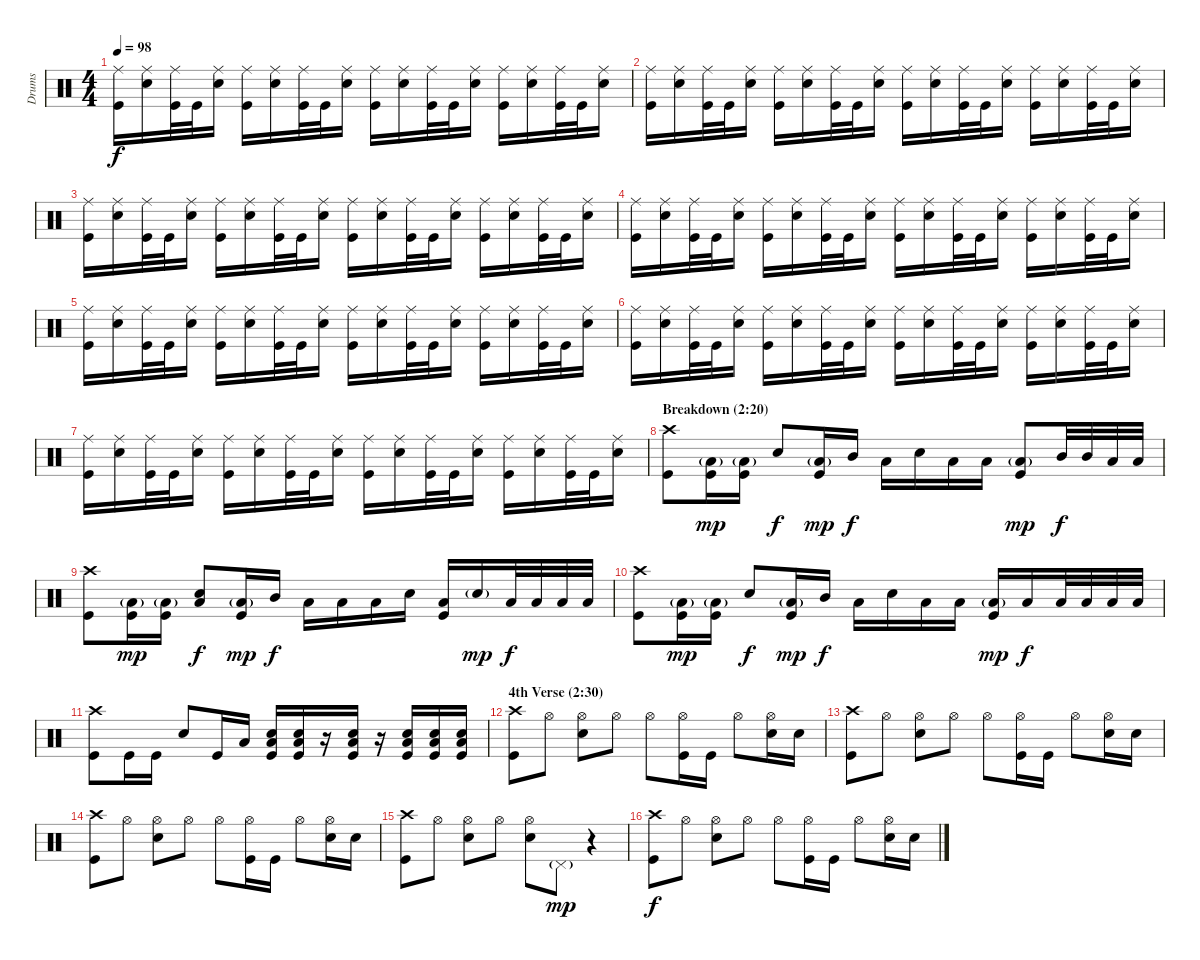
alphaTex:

\track ("Drums" "Drums") {instrument percussion}
\staff {score}
\articulation defaults
\ts (4 4)
\tempo 98
\clef neutral
\ks c
("Ride (middle)" "Kick (hit)").16{dy f} ("Ride (middle)" "Snare (hit) 2").16 ("Ride (middle)" "Kick (hit)").32 "Kick (hit)".32 ("Ride (middle)" "Snare (hit) 2").16 ("Ride (middle)" "Kick (hit)").16 ("Ride (middle)" "Snare (hit) 2").16 ("Ride (middle)" "Kick (hit)").32 "Kick (hit)".32 ("Ride (middle)" "Snare (hit) 2").16 ("Ride (middle)" "Kick (hit)").16 ("Ride (middle)" "Snare (hit) 2").16 ("Ride (middle)" "Kick (hit)").32 "Kick (hit)".32 ("Ride (middle)" "Snare (hit) 2").16 ("Ride (middle)" "Kick (hit)").16 ("Ride (middle)" "Snare (hit) 2").16 ("Ride (middle)" "Kick (hit)").32 "Kick (hit)".32 ("Ride (middle)" "Snare (hit) 2").16 |
("Ride (middle)" "Kick (hit)").16 ("Ride (middle)" "Snare (hit) 2").16 ("Ride (middle)" "Kick (hit)").32 "Kick (hit)".32 ("Ride (middle)" "Snare (hit) 2").16 ("Ride (middle)" "Kick (hit)").16 ("Ride (middle)" "Snare (hit) 2").16 ("Ride (middle)" "Kick (hit)").32 "Kick (hit)".32 ("Ride (middle)" "Snare (hit) 2").16 ("Ride (middle)" "Kick (hit)").16 ("Ride (middle)" "Snare (hit) 2").16 ("Ride (middle)" "Kick (hit)").32 "Kick (hit)".32 ("Ride (middle)" "Snare (hit) 2").16 ("Ride (middle)" "Kick (hit)").16 ("Ride (middle)" "Snare (hit) 2").16 ("Ride (middle)" "Kick (hit)").32 "Kick (hit)".32 ("Ride (middle)" "Snare (hit) 2").16 |
("Ride (middle)" "Kick (hit)").16 ("Ride (middle)" "Snare (hit) 2").16 ("Ride (middle)" "Kick (hit)").32 "Kick (hit)".32 ("Ride (middle)" "Snare (hit) 2").16 ("Ride (middle)" "Kick (hit)").16 ("Ride (middle)" "Snare (hit) 2").16 ("Ride (middle)" "Kick (hit)").32 "Kick (hit)".32 ("Ride (middle)" "Snare (hit) 2").16 ("Ride (middle)" "Kick (hit)").16 ("Ride (middle)" "Snare (hit) 2").16 ("Ride (middle)" "Kick (hit)").32 "Kick (hit)".32 ("Ride (middle)" "Snare (hit) 2").16 ("Ride (middle)" "Kick (hit)").16 ("Ride (middle)" "Snare (hit) 2").16 ("Ride (middle)" "Kick (hit)").32 "Kick (hit)".32 ("Ride (middle)" "Snare (hit) 2").16 |
("Ride (middle)" "Kick (hit)").16 ("Ride (middle)" "Snare (hit) 2").16 ("Ride (middle)" "Kick (hit)").32 "Kick (hit)".32 ("Ride (middle)" "Snare (hit) 2").16 ("Ride (middle)" "Kick (hit)").16 ("Ride (middle)" "Snare (hit) 2").16 ("Ride (middle)" "Kick (hit)").32 "Kick (hit)".32 ("Ride (middle)" "Snare (hit) 2").16 ("Ride (middle)" "Kick (hit)").16 ("Ride (middle)" "Snare (hit) 2").16 ("Ride (middle)" "Kick (hit)").32 "Kick (hit)".32 ("Ride (middle)" "Snare (hit) 2").16 ("Ride (middle)" "Kick (hit)").16 ("Ride (middle)" "Snare (hit) 2").16 ("Ride (middle)" "Kick (hit)").32 "Kick (hit)".32 ("Ride (middle)" "Snare (hit) 2").16 |
("Ride (middle)" "Kick (hit)").16 ("Ride (middle)" "Snare (hit) 2").16 ("Ride (middle)" "Kick (hit)").32 "Kick (hit)".32 ("Ride (middle)" "Snare (hit) 2").16 ("Ride (middle)" "Kick (hit)").16 ("Ride (middle)" "Snare (hit) 2").16 ("Ride (middle)" "Kick (hit)").32 "Kick (hit)".32 ("Ride (middle)" "Snare (hit) 2").16 ("Ride (middle)" "Kick (hit)").16 ("Ride (middle)" "Snare (hit) 2").16 ("Ride (middle)" "Kick (hit)").32 "Kick (hit)".32 ("Ride (middle)" "Snare (hit) 2").16 ("Ride (middle)" "Kick (hit)").16 ("Ride (middle)" "Snare (hit) 2").16 ("Ride (middle)" "Kick (hit)").32 "Kick (hit)".32 ("Ride (middle)" "Snare (hit) 2").16 |
("Ride (middle)" "Kick (hit)").16 ("Ride (middle)" "Snare (hit) 2").16 ("Ride (middle)" "Kick (hit)").32 "Kick (hit)".32 ("Ride (middle)" "Snare (hit) 2").16 ("Ride (middle)" "Kick (hit)").16 ("Ride (middle)" "Snare (hit) 2").16 ("Ride (middle)" "Kick (hit)").32 "Kick (hit)".32 ("Ride (middle)" "Snare (hit) 2").16 ("Ride (middle)" "Kick (hit)").16 ("Ride (middle)" "Snare (hit) 2").16 ("Ride (middle)" "Kick (hit)").32 "Kick (hit)".32 ("Ride (middle)" "Snare (hit) 2").16 ("Ride (middle)" "Kick (hit)").16 ("Ride (middle)" "Snare (hit) 2").16 ("Ride (middle)" "Kick (hit)").32 "Kick (hit)".32 ("Ride (middle)" "Snare (hit) 2").16 |
("Ride (middle)" "Kick (hit)").16 ("Ride (middle)" "Snare (hit) 2").16 ("Ride (middle)" "Kick (hit)").32 "Kick (hit)".32 ("Ride (middle)" "Snare (hit) 2").16 ("Ride (middle)" "Kick (hit)").16 ("Ride (middle)" "Snare (hit) 2").16 ("Ride (middle)" "Kick (hit)").32 "Kick (hit)".32 ("Ride (middle)" "Snare (hit) 2").16 ("Ride (middle)" "Kick (hit)").16 ("Ride (middle)" "Snare (hit) 2").16 ("Ride (middle)" "Kick (hit)").32 "Kick (hit)".32 ("Ride (middle)" "Snare (hit) 2").16 ("Ride (middle)" "Kick (hit)").16 ("Ride (middle)" "Snare (hit) 2").16 ("Ride (middle)" "Kick (hit)").32 "Kick (hit)".32 ("Ride (middle)" "Snare (hit) 2").16 |
\section ("" "Breakdown (2:20)")
("Crash high (hit)" "Kick (hit)").8 ("Low Floor Tom (hit)"{g} "Kick (hit)").16{dy mp} ("Low Floor Tom (hit)"{g} "Kick (hit)").16 "Snare (hit) 2".8{dy f} ("Low Floor Tom (hit)"{g} "Kick (hit)").16{dy mp} "Mid Tom (hit)".16{dy f} "Low Floor Tom (hit)".16 "Snare (hit) 2".16 "Low Tom (hit)".16 "Low Floor Tom (hit)".16 ("Low Floor Tom (hit)"{g} "Kick (hit)").8{dy mp} "Mid Tom (hit)".32{dy f} "Mid Tom (hit)".32 "Low Tom (hit)".32 "Low Tom (hit)".32 |
("Crash high (hit)" "Kick (hit)").8 ("Low Floor Tom (hit)"{g} "Kick (hit)").16{dy mp} ("Low Floor Tom (hit)"{g} "Kick (hit)").16 ("Snare (hit) 2" "Low Floor Tom (hit)").8{dy f} ("Low Floor Tom (hit)"{g} "Kick (hit)").16{dy mp} "Mid Tom (hit)".16{dy f} "Low Floor Tom (hit)".16 "Low Tom (hit)".16 "Low Floor Tom (hit)".16 "Snare (hit) 2".16 ("Low Floor Tom (hit)" "Kick (hit)").16 "Snare (hit) 2"{g}.16{dy mp} "Low Tom (hit)".32{dy f} "Low Tom (hit)".32 "Low Floor Tom (hit)".32 "Low Floor Tom (hit)".32 |
("Crash high (hit)" "Kick (hit)").8 ("Low Floor Tom (hit)"{g} "Kick (hit)").16{dy mp} ("Low Floor Tom (hit)"{g} "Kick (hit)").16 "Snare (hit) 2".8{dy f} ("Low Floor Tom (hit)"{g} "Kick (hit)").16{dy mp} "Mid Tom (hit)".16{dy f} "Low Floor Tom (hit)".16 "Snare (hit) 2".16 "Low Tom (hit)".16 "Low Floor Tom (hit)".16 ("Low Floor Tom (hit)"{g} "Kick (hit)").16{dy mp} "Low Floor Tom (hit)".16{dy f} "Low Tom (hit)".32 "Low Tom (hit)".32 "Low Floor Tom (hit)".32 "Low Floor Tom (hit)".32 |
("Crash high (hit)" "Kick (hit)").8 "Kick (hit)".16 "Kick (hit)".16 "Snare (hit) 2".8 "Kick (hit)".16 "Low Floor Tom (hit)".16 ("Snare (hit) 2" "Low Floor Tom (hit)" "Kick (hit)").16 ("Snare (hit) 2" "Low Floor Tom (hit)" "Kick (hit)").16 r.16 ("Snare (hit) 2" "Low Floor Tom (hit)" "Kick (hit)").16 r.16 ("Snare (hit) 2" "Low Floor Tom (hit)" "Kick (hit)").16 ("Snare (hit) 2" "Low Floor Tom (hit)" "Kick (hit)").16 ("Snare (hit) 2" "Low Floor Tom (hit)" "Kick (hit)").16 |
\section ("" "4th Verse (2:30)")
("Crash high (hit)" "Kick (hit)").8 "Hi-Hat (open)".8 ("Hi-Hat (open)" "Snare (hit) 2").8 "Hi-Hat (open)".8 "Hi-Hat (open)".8 ("Hi-Hat (open)" "Kick (hit)").16 "Kick (hit)".16 "Hi-Hat (open)".8 ("Hi-Hat (open)" "Snare (hit) 2").16 "Snare (hit) 2".16 |
("Crash high (hit)" "Kick (hit)").8 "Hi-Hat (open)".8 ("Hi-Hat (open)" "Snare (hit) 2").8 "Hi-Hat (open)".8 "Hi-Hat (open)".8 ("Hi-Hat (open)" "Kick (hit)").16 "Kick (hit)".16 "Hi-Hat (open)".8 ("Hi-Hat (open)" "Snare (hit) 2").16 "Snare (hit) 2".16 |
("Crash high (hit)" "Kick (hit)").8 "Hi-Hat (open)".8 ("Hi-Hat (open)" "Snare (hit) 2").8 "Hi-Hat (open)".8 "Hi-Hat (open)".8 ("Hi-Hat (open)" "Kick (hit)").16 "Kick (hit)".16 "Hi-Hat (open)".8 ("Hi-Hat (open)" "Snare (hit) 2").16 "Snare (hit) 2".16 |
("Crash high (hit)" "Kick (hit)").8 "Hi-Hat (open)".8 ("Hi-Hat (open)" "Snare (hit) 2").8 "Hi-Hat (open)".8 ("Hi-Hat (open)" "Snare (hit) 2").8 "Pedal Hi-Hat (hit)"{g}.8{dy mp} r.4 |
("Crash high (hit)" "Kick (hit)").8{dy f} "Hi-Hat (open)".8 ("Hi-Hat (open)" "Snare (hit) 2").8 "Hi-Hat (open)".8 "Hi-Hat (open)".8 ("Hi-Hat (open)" "Kick (hit)").16 "Kick (hit)".16 "Hi-Hat (open)".8 ("Hi-Hat (open)" "Snare (hit) 2").16 "Snare (hit) 2".16
